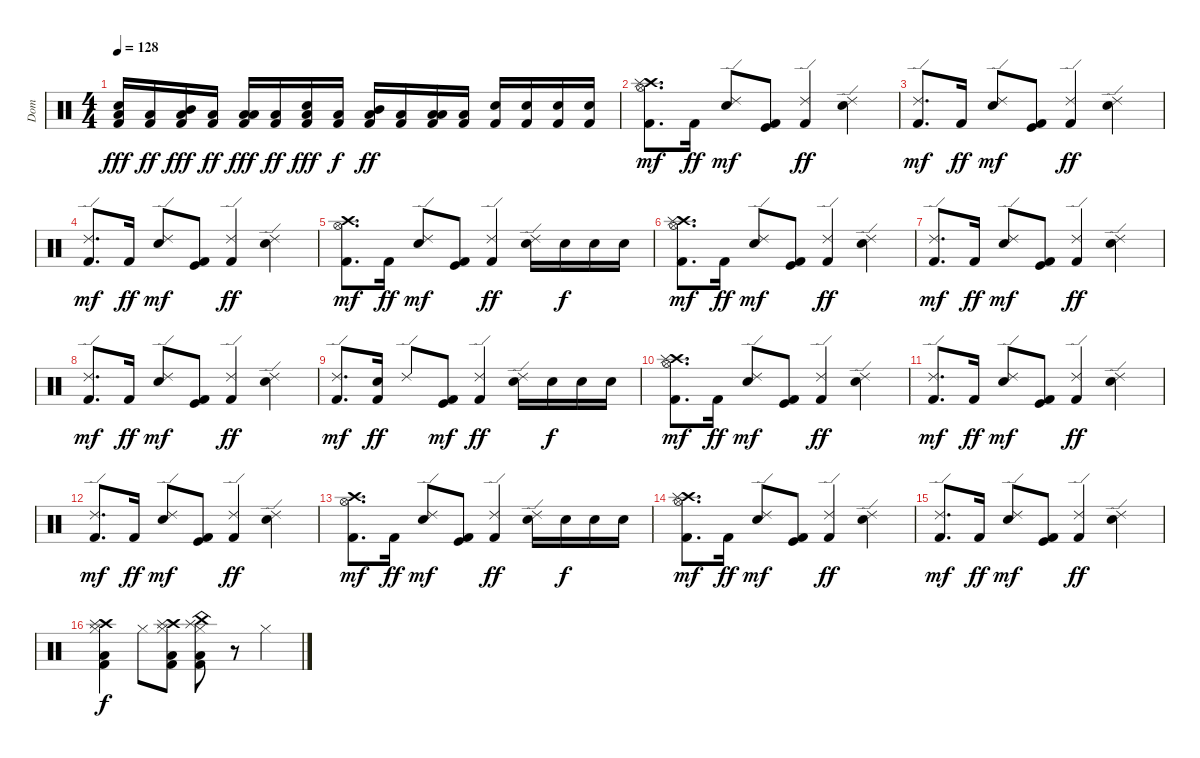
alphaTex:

\track ("Dom " "Dom ") {instrument percussion}
\staff {score}
\articulation defaults
\ts (4 4)
\tempo 128
\clef neutral
\ks c
("Electric Snare (hit)" "Low Floor Tom (hit)" "Kick (hit) 2").16{dy fff} ("Low Floor Tom (hit)" "Kick (hit) 2").16{dy ff} ("Mid Tom (hit)" "Low Floor Tom (hit)" "Kick (hit) 2").16{dy fff} ("Low Floor Tom (hit)" "Kick (hit) 2").16{dy ff} ("Low Tom (hit)" "Low Floor Tom (hit)" "Kick (hit) 2").16{dy fff} ("Low Floor Tom (hit)" "Kick (hit) 2").16{dy ff} ("Electric Snare (hit)" "Low Floor Tom (hit)" "Kick (hit) 2").16{dy fff} ("Low Floor Tom (hit)" "Kick (hit) 2").16{dy f} ("Mid Tom (hit)" "Low Floor Tom (hit)" "Kick (hit) 2").16{dy ff} ("Low Floor Tom (hit)" "Kick (hit) 2").16 ("Low Tom (hit)" "Low Floor Tom (hit)" "Kick (hit) 2").16 ("Low Floor Tom (hit)" "Kick (hit) 2").16 ("Electric Snare (hit)" "Kick (hit) 2").16 ("Electric Snare (hit)" "Kick (hit) 2").16 ("Electric Snare (hit)" "Kick (hit) 2").16 ("Electric Snare (hit)" "Kick (hit) 2").16 |
("Hi-Hat (open)" "Crash high (hit)" "Splash (hit)" "Kick (hit) 2").8{d dy mf} "Kick (hit) 2".16{dy ff} ("Ride (edge) 2" "Electric Snare (hit)").8{dy mf} ("Kick (hit)" "Kick (hit) 2").8 ("Ride (edge) 2" "Kick (hit) 2").4{dy ff} ("Ride (edge) 2" "Electric Snare (hit)").4 |
("Ride (edge) 2" "Kick (hit) 2").8{d dy mf} "Kick (hit) 2".16{dy ff} ("Ride (edge) 2" "Electric Snare (hit)").8{dy mf} ("Kick (hit)" "Kick (hit) 2").8 ("Ride (edge) 2" "Kick (hit) 2").4{dy ff} ("Ride (edge) 2" "Electric Snare (hit)").4 |
("Ride (edge) 2" "Kick (hit) 2").8{d dy mf} "Kick (hit) 2".16{dy ff} ("Ride (edge) 2" "Electric Snare (hit)").8{dy mf} ("Kick (hit)" "Kick (hit) 2").8 ("Ride (edge) 2" "Kick (hit) 2").4{dy ff} ("Ride (edge) 2" "Electric Snare (hit)").4 |
("Hi-Hat (open)" "Crash high (hit)" "Kick (hit) 2").8{d dy mf} "Kick (hit) 2".16{dy ff} ("Ride (edge) 2" "Electric Snare (hit)").8{dy mf} ("Kick (hit)" "Kick (hit) 2").8 ("Ride (edge) 2" "Kick (hit) 2").4{dy ff} ("Ride (edge) 2" "Electric Snare (hit)").16 "Electric Snare (hit)".16{dy f} "Electric Snare (hit)".16 "Electric Snare (hit)".16 |
("Hi-Hat (open)" "Crash high (hit)" "Splash (hit)" "Kick (hit) 2").8{d dy mf} "Kick (hit) 2".16{dy ff} ("Ride (edge) 2" "Electric Snare (hit)").8{dy mf} ("Kick (hit)" "Kick (hit) 2").8 ("Ride (edge) 2" "Kick (hit) 2").4{dy ff} ("Ride (edge) 2" "Electric Snare (hit)").4 |
("Ride (edge) 2" "Kick (hit) 2").8{d dy mf} "Kick (hit) 2".16{dy ff} ("Ride (edge) 2" "Electric Snare (hit)").8{dy mf} ("Kick (hit)" "Kick (hit) 2").8 ("Ride (edge) 2" "Kick (hit) 2").4{dy ff} ("Ride (edge) 2" "Electric Snare (hit)").4 |
("Ride (edge) 2" "Kick (hit) 2").8{d dy mf} "Kick (hit) 2".16{dy ff} ("Ride (edge) 2" "Electric Snare (hit)").8{dy mf} ("Kick (hit)" "Kick (hit) 2").8 ("Ride (edge) 2" "Kick (hit) 2").4{dy ff} ("Ride (edge) 2" "Electric Snare (hit)").4 |
("Ride (edge) 2" "Kick (hit) 2").8{d dy mf} ("Electric Snare (hit)" "Kick (hit) 2").16{dy ff} "Ride (edge) 2".8 ("Kick (hit)" "Kick (hit) 2").8{dy mf} ("Ride (edge) 2" "Kick (hit) 2").4{dy ff} ("Ride (edge) 2" "Electric Snare (hit)").16 "Electric Snare (hit)".16{dy f} "Electric Snare (hit)".16 "Electric Snare (hit)".16 |
("Hi-Hat (open)" "Crash high (hit)" "Splash (hit)" "Kick (hit) 2").8{d dy mf} "Kick (hit) 2".16{dy ff} ("Ride (edge) 2" "Electric Snare (hit)").8{dy mf} ("Kick (hit)" "Kick (hit) 2").8 ("Ride (edge) 2" "Kick (hit) 2").4{dy ff} ("Ride (edge) 2" "Electric Snare (hit)").4 |
("Ride (edge) 2" "Kick (hit) 2").8{d dy mf} "Kick (hit) 2".16{dy ff} ("Ride (edge) 2" "Electric Snare (hit)").8{dy mf} ("Kick (hit)" "Kick (hit) 2").8 ("Ride (edge) 2" "Kick (hit) 2").4{dy ff} ("Ride (edge) 2" "Electric Snare (hit)").4 |
("Ride (edge) 2" "Kick (hit) 2").8{d dy mf} "Kick (hit) 2".16{dy ff} ("Ride (edge) 2" "Electric Snare (hit)").8{dy mf} ("Kick (hit)" "Kick (hit) 2").8 ("Ride (edge) 2" "Kick (hit) 2").4{dy ff} ("Ride (edge) 2" "Electric Snare (hit)").4 |
("Hi-Hat (open)" "Crash high (hit)" "Kick (hit) 2").8{d dy mf} "Kick (hit) 2".16{dy ff} ("Ride (edge) 2" "Electric Snare (hit)").8{dy mf} ("Kick (hit)" "Kick (hit) 2").8 ("Ride (edge) 2" "Kick (hit) 2").4{dy ff} ("Ride (edge) 2" "Electric Snare (hit)").16 "Electric Snare (hit)".16{dy f} "Electric Snare (hit)".16 "Electric Snare (hit)".16 |
("Hi-Hat (open)" "Crash high (hit)" "Splash (hit)" "Kick (hit) 2").8{d dy mf} "Kick (hit) 2".16{dy ff} ("Ride (edge) 2" "Electric Snare (hit)").8{dy mf} ("Kick (hit)" "Kick (hit) 2").8 ("Ride (edge) 2" "Kick (hit) 2").4{dy ff} ("Ride (edge) 2" "Electric Snare (hit)").4 |
("Ride (edge) 2" "Kick (hit) 2").8{d dy mf} "Kick (hit) 2".16{dy ff} ("Ride (edge) 2" "Electric Snare (hit)").8{dy mf} ("Kick (hit)" "Kick (hit) 2").8 ("Ride (edge) 2" "Kick (hit) 2").4{dy ff} ("Ride (edge) 2" "Electric Snare (hit)").4 |
("Hi-Hat (closed)" "Crash high (hit)" "Splash (hit)" "Low Floor Tom (hit)" "Kick (hit) 2").4{dy f} "Hi-Hat (closed)".8 ("Hi-Hat (closed)" "Crash high (hit)" "Splash (hit)" "Low Floor Tom (hit)" "Kick (hit) 2").8 ("Hi-Hat (closed)" "Splash (hit)" "China (hit)" "Low Floor Tom (hit)" "Kick (hit) 2").8 r.8 "Hi-Hat (closed)".4
